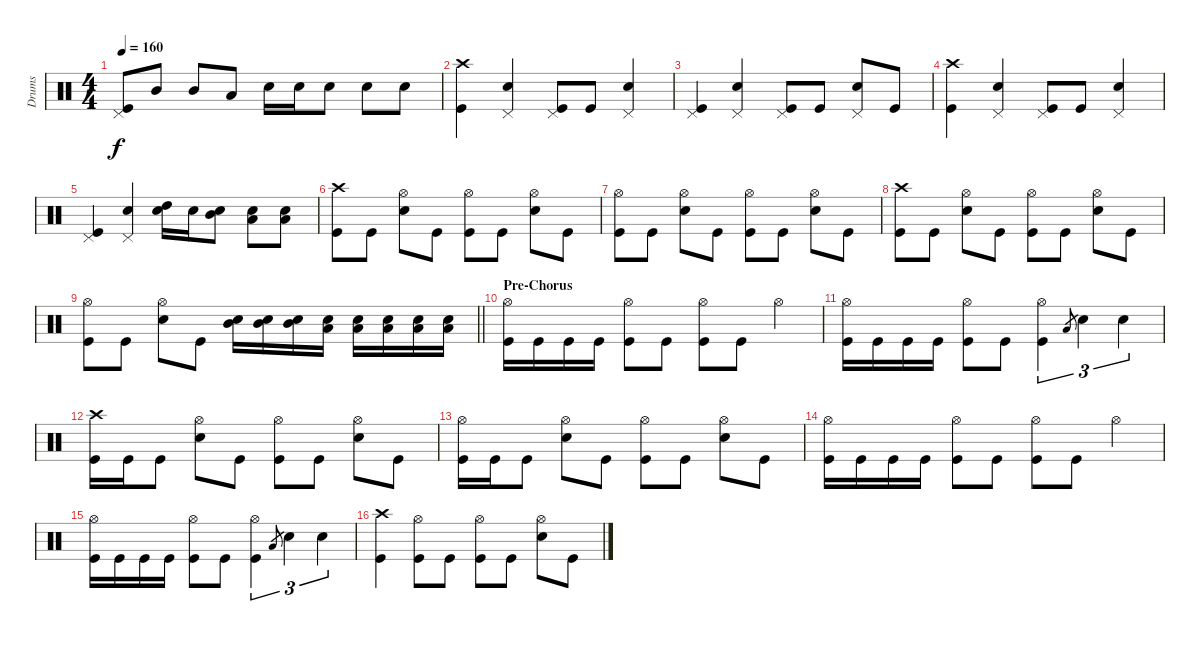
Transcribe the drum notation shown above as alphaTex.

\track ("Drums " "Drums ") {instrument percussion}
\staff {score}
\articulation defaults
\ts (4 4)
\tempo 160
\clef neutral
\ks c
("Pedal Hi-Hat (hit)" "Kick (hit)").8{dy f} "Mid Tom (hit)".8 "Mid Tom (hit)".8 "Low Tom (hit)".8 "Electric Snare (hit)".16 "Electric Snare (hit)".16 "Electric Snare (hit)".8 "Electric Snare (hit)".8 "Electric Snare (hit)".8 |
("Crash high (hit)" "Kick (hit)").4 ("Pedal Hi-Hat (hit)" "Electric Snare (hit)").4 ("Pedal Hi-Hat (hit)" "Kick (hit)").8 "Kick (hit)".8 ("Pedal Hi-Hat (hit)" "Electric Snare (hit)").4 |
("Pedal Hi-Hat (hit)" "Kick (hit)").4 ("Pedal Hi-Hat (hit)" "Electric Snare (hit)").4 ("Pedal Hi-Hat (hit)" "Kick (hit)").8 "Kick (hit)".8 ("Pedal Hi-Hat (hit)" "Electric Snare (hit)").8 "Kick (hit)".8 |
("Crash high (hit)" "Kick (hit)").4 ("Pedal Hi-Hat (hit)" "Electric Snare (hit)").4 ("Pedal Hi-Hat (hit)" "Kick (hit)").8 "Kick (hit)".8 ("Pedal Hi-Hat (hit)" "Electric Snare (hit)").4 |
("Pedal Hi-Hat (hit)" "Kick (hit)").4 ("Pedal Hi-Hat (hit)" "Electric Snare (hit)").4 ("High Tom (hit)" "Electric Snare (hit)").16 "Electric Snare (hit)".16 ("Mid Tom (hit)" "Electric Snare (hit)").8 ("Low Floor Tom (hit)" "Electric Snare (hit)").8 ("Low Floor Tom (hit)" "Electric Snare (hit)").8 |
("Crash high (hit)" "Kick (hit)").8 "Kick (hit)".8 ("Hi-Hat (open)" "Electric Snare (hit)").8 "Kick (hit)".8 ("Hi-Hat (open)" "Kick (hit)").8 "Kick (hit)".8 ("Hi-Hat (open)" "Electric Snare (hit)").8 "Kick (hit)".8 |
("Hi-Hat (open)" "Kick (hit)").8 "Kick (hit)".8 ("Hi-Hat (open)" "Electric Snare (hit)").8 "Kick (hit)".8 ("Hi-Hat (open)" "Kick (hit)").8 "Kick (hit)".8 ("Hi-Hat (open)" "Electric Snare (hit)").8 "Kick (hit)".8 |
("Crash high (hit)" "Kick (hit)").8 "Kick (hit)".8 ("Hi-Hat (open)" "Electric Snare (hit)").8 "Kick (hit)".8 ("Hi-Hat (open)" "Kick (hit)").8 "Kick (hit)".8 ("Hi-Hat (open)" "Electric Snare (hit)").8 "Kick (hit)".8 |
\barLineRight lightlight
("Hi-Hat (open)" "Kick (hit)").8 "Kick (hit)".8 ("Hi-Hat (open)" "Electric Snare (hit)").8 "Kick (hit)".8 ("Mid Tom (hit)" "Electric Snare (hit)").16 ("Mid Tom (hit)" "Electric Snare (hit)").16 ("Mid Tom (hit)" "Electric Snare (hit)").16 ("Low Tom (hit)" "Electric Snare (hit)").16 ("Low Tom (hit)" "Electric Snare (hit)").16 ("Low Tom (hit)" "Electric Snare (hit)").16 ("Low Floor Tom (hit)" "Electric Snare (hit)").16 ("Low Floor Tom (hit)" "Electric Snare (hit)").16 |
\section ("" "Pre-Chorus")
("Hi-Hat (open)" "Kick (hit)").16 "Kick (hit)".16 "Kick (hit)".16 "Kick (hit)".16 ("Hi-Hat (open)" "Kick (hit)").8 "Kick (hit)".8 ("Hi-Hat (open)" "Kick (hit)").8 "Kick (hit)".8 "Hi-Hat (open)".4 |
("Hi-Hat (open)" "Kick (hit)").16 "Kick (hit)".16 "Kick (hit)".16 "Kick (hit)".16 ("Hi-Hat (open)" "Kick (hit)").8 "Kick (hit)".8 ("Hi-Hat (open)" "Kick (hit)").4{tu (3 2)} "Low Floor Tom (hit)".8{gr} "Electric Snare (hit)".4{tu (3 2)} "Electric Snare (hit)".4{tu (3 2)} |
("Crash high (hit)" "Kick (hit)").16 "Kick (hit)".16 "Kick (hit)".8 ("Hi-Hat (open)" "Electric Snare (hit)").8 "Kick (hit)".8 ("Hi-Hat (open)" "Kick (hit)").8 "Kick (hit)".8 ("Hi-Hat (open)" "Electric Snare (hit)").8 "Kick (hit)".8 |
("Hi-Hat (open)" "Kick (hit)").16 "Kick (hit)".16 "Kick (hit)".8 ("Hi-Hat (open)" "Electric Snare (hit)").8 "Kick (hit)".8 ("Hi-Hat (open)" "Kick (hit)").8 "Kick (hit)".8 ("Hi-Hat (open)" "Electric Snare (hit)").8 "Kick (hit)".8 |
("Hi-Hat (open)" "Kick (hit)").16 "Kick (hit)".16 "Kick (hit)".16 "Kick (hit)".16 ("Hi-Hat (open)" "Kick (hit)").8 "Kick (hit)".8 ("Hi-Hat (open)" "Kick (hit)").8 "Kick (hit)".8 "Hi-Hat (open)".4 |
("Hi-Hat (open)" "Kick (hit)").16 "Kick (hit)".16 "Kick (hit)".16 "Kick (hit)".16 ("Hi-Hat (open)" "Kick (hit)").8 "Kick (hit)".8 ("Hi-Hat (open)" "Kick (hit)").4{tu (3 2)} "Low Floor Tom (hit)".8{gr} "Electric Snare (hit)".4{tu (3 2)} "Electric Snare (hit)".4{tu (3 2)} |
("Crash high (hit)" "Kick (hit)").4 ("Hi-Hat (open)" "Kick (hit)").8 "Kick (hit)".8 ("Hi-Hat (open)" "Kick (hit)").8 "Kick (hit)".8 ("Hi-Hat (open)" "Electric Snare (hit)").8 "Kick (hit)".8
